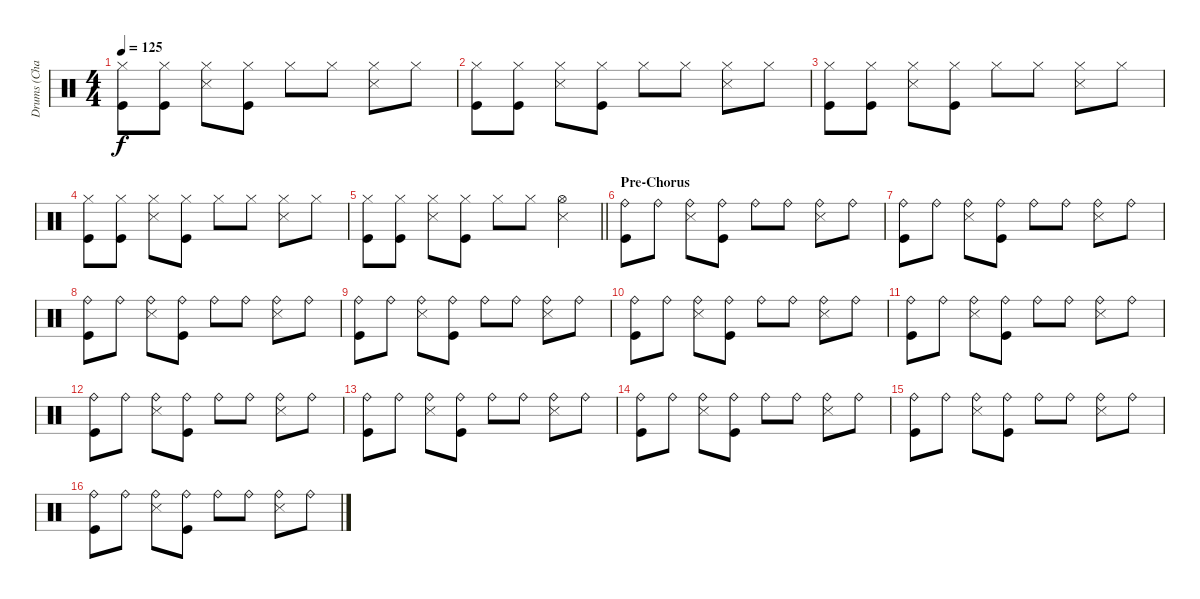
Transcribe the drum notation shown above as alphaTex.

\track ("Drums (Chad Smith)" "Drums (Cha") {instrument percussion}
\staff {score}
\articulation defaults
\ts (4 4)
\tempo 125
\clef neutral
\ks c
("Hi-Hat (closed)" "Kick (hit)").8{dy f} ("Hi-Hat (closed)" "Kick (hit)").8 ("Hi-Hat (closed)" "Snare (side stick) 3").8 ("Hi-Hat (closed)" "Kick (hit)").8 "Hi-Hat (closed)".8 "Hi-Hat (closed)".8 ("Hi-Hat (closed)" "Snare (side stick) 3").8 "Hi-Hat (closed)".8 |
("Hi-Hat (closed)" "Kick (hit)").8 ("Hi-Hat (closed)" "Kick (hit)").8 ("Hi-Hat (closed)" "Snare (side stick) 3").8 ("Hi-Hat (closed)" "Kick (hit)").8 "Hi-Hat (closed)".8 "Hi-Hat (closed)".8 ("Hi-Hat (closed)" "Snare (side stick) 3").8 "Hi-Hat (closed)".8 |
("Hi-Hat (closed)" "Kick (hit)").8 ("Hi-Hat (closed)" "Kick (hit)").8 ("Hi-Hat (closed)" "Snare (side stick) 3").8 ("Hi-Hat (closed)" "Kick (hit)").8 "Hi-Hat (closed)".8 "Hi-Hat (closed)".8 ("Hi-Hat (closed)" "Snare (side stick) 3").8 "Hi-Hat (closed)".8 |
("Hi-Hat (closed)" "Kick (hit)").8 ("Hi-Hat (closed)" "Kick (hit)").8 ("Hi-Hat (closed)" "Snare (side stick) 3").8 ("Hi-Hat (closed)" "Kick (hit)").8 "Hi-Hat (closed)".8 "Hi-Hat (closed)".8 ("Hi-Hat (closed)" "Snare (side stick) 3").8 "Hi-Hat (closed)".8 |
\barLineRight lightlight
("Hi-Hat (closed)" "Kick (hit)").8 ("Hi-Hat (closed)" "Kick (hit)").8 ("Hi-Hat (closed)" "Snare (side stick) 3").8 ("Hi-Hat (closed)" "Kick (hit)").8 "Hi-Hat (closed)".8 "Hi-Hat (closed)".8 ("Hi-Hat (open)" "Snare (side stick) 3").4 |
\section ("" "Pre-Chorus")
("Ride (bell)" "Kick (hit)").8 "Ride (bell)".8 ("Ride (bell)" "Snare (side stick) 3").8 ("Ride (bell)" "Kick (hit)").8 "Ride (bell)".8 "Ride (bell)".8 ("Ride (bell)" "Snare (side stick) 3").8 "Ride (bell)".8 |
("Ride (bell)" "Kick (hit)").8 "Ride (bell)".8 ("Ride (bell)" "Snare (side stick) 3").8 ("Ride (bell)" "Kick (hit)").8 "Ride (bell)".8 "Ride (bell)".8 ("Ride (bell)" "Snare (side stick) 3").8 "Ride (bell)".8 |
("Ride (bell)" "Kick (hit)").8 "Ride (bell)".8 ("Ride (bell)" "Snare (side stick) 3").8 ("Ride (bell)" "Kick (hit)").8 "Ride (bell)".8 "Ride (bell)".8 ("Ride (bell)" "Snare (side stick) 3").8 "Ride (bell)".8 |
("Ride (bell)" "Kick (hit)").8 "Ride (bell)".8 ("Ride (bell)" "Snare (side stick) 3").8 ("Ride (bell)" "Kick (hit)").8 "Ride (bell)".8 "Ride (bell)".8 ("Ride (bell)" "Snare (side stick) 3").8 "Ride (bell)".8 |
("Ride (bell)" "Kick (hit)").8 "Ride (bell)".8 ("Ride (bell)" "Snare (side stick) 3").8 ("Ride (bell)" "Kick (hit)").8 "Ride (bell)".8 "Ride (bell)".8 ("Ride (bell)" "Snare (side stick) 3").8 "Ride (bell)".8 |
("Ride (bell)" "Kick (hit)").8 "Ride (bell)".8 ("Ride (bell)" "Snare (side stick) 3").8 ("Ride (bell)" "Kick (hit)").8 "Ride (bell)".8 "Ride (bell)".8 ("Ride (bell)" "Snare (side stick) 3").8 "Ride (bell)".8 |
("Ride (bell)" "Kick (hit)").8 "Ride (bell)".8 ("Ride (bell)" "Snare (side stick) 3").8 ("Ride (bell)" "Kick (hit)").8 "Ride (bell)".8 "Ride (bell)".8 ("Ride (bell)" "Snare (side stick) 3").8 "Ride (bell)".8 |
("Ride (bell)" "Kick (hit)").8 "Ride (bell)".8 ("Ride (bell)" "Snare (side stick) 3").8 ("Ride (bell)" "Kick (hit)").8 "Ride (bell)".8 "Ride (bell)".8 ("Ride (bell)" "Snare (side stick) 3").8 "Ride (bell)".8 |
("Ride (bell)" "Kick (hit)").8 "Ride (bell)".8 ("Ride (bell)" "Snare (side stick) 3").8 ("Ride (bell)" "Kick (hit)").8 "Ride (bell)".8 "Ride (bell)".8 ("Ride (bell)" "Snare (side stick) 3").8 "Ride (bell)".8 |
("Ride (bell)" "Kick (hit)").8 "Ride (bell)".8 ("Ride (bell)" "Snare (side stick) 3").8 ("Ride (bell)" "Kick (hit)").8 "Ride (bell)".8 "Ride (bell)".8 ("Ride (bell)" "Snare (side stick) 3").8 "Ride (bell)".8 |
("Ride (bell)" "Kick (hit)").8 "Ride (bell)".8 ("Ride (bell)" "Snare (side stick) 3").8 ("Ride (bell)" "Kick (hit)").8 "Ride (bell)".8 "Ride (bell)".8 ("Ride (bell)" "Snare (side stick) 3").8 "Ride (bell)".8
